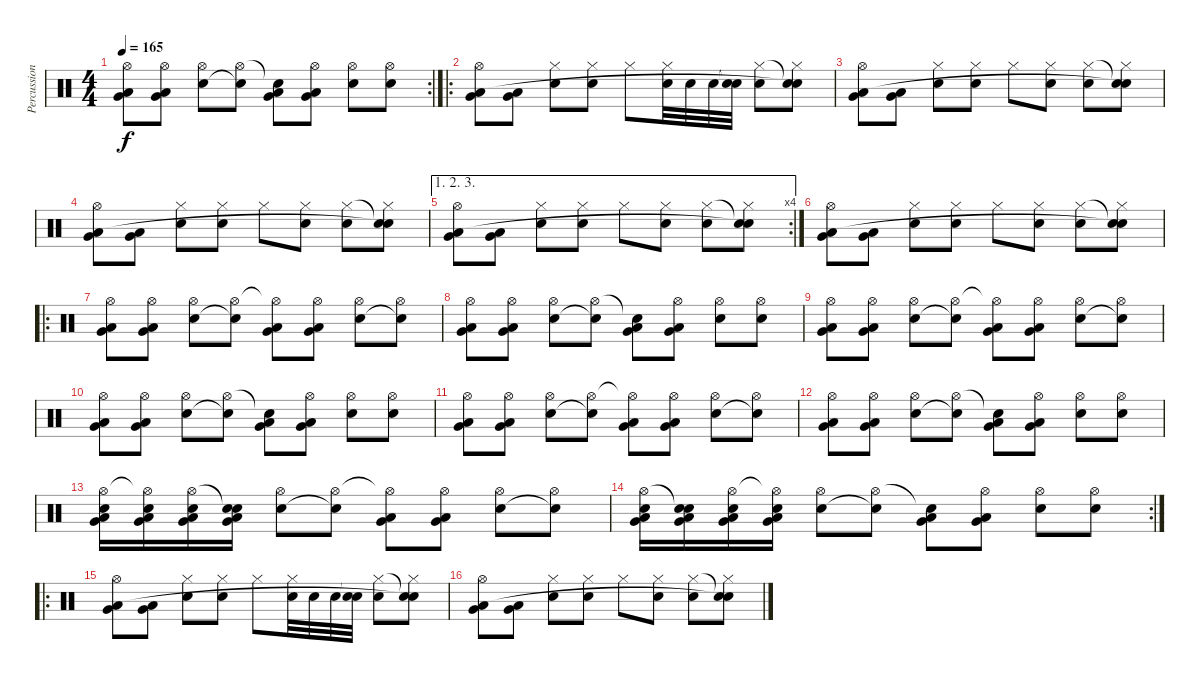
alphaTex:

\track ("Percussion" "Percussion") {instrument percussion}
\staff {score}
\articulation defaults
\rc 2
\ts (4 4)
\tempo 165
\clef neutral
\ks c
("Hi-Hat (open)" "Very Low Tom (hit)" "Low Tom (hit)").8{dy f} ("Hi-Hat (open)" "Very Low Tom (hit)" "Low Tom (hit)").8 ("Hi-Hat (open)" "Electric Snare (hit)").8 ("Hi-Hat (open)" "Snare (hit)"{t}).8 ("Snare (hit)"{t} "Very Low Tom (hit)" "Low Tom (hit)").8 ("Hi-Hat (open)" "Very Low Tom (hit)" "Low Tom (hit)").8 ("Hi-Hat (open)" "Electric Snare (hit)").8 ("Hi-Hat (open)" "Snare (hit) 2").8 |
\ro
("Hi-Hat (open)" "Very Low Tom (hit)" "Low Tom (hit)").8 ("Very Low Tom (hit)" "Low Tom (hit)").8 ("Hi-Hat (closed)" "Electric Snare (hit)").8 ("Hi-Hat (closed)" "Snare (hit) 2").8 "Hi-Hat (closed)".8 ("Hi-Hat (closed)" "Electric Snare (hit)").32 "Electric Snare (hit)".32 "Electric Snare (hit)".32 ("Snare (hit)"{t} "Electric Snare (hit)").32 ("Hi-Hat (closed)" "Snare (hit) 2").8 ("Snare (hit)"{t} "Hi-Hat (closed)" "Snare (hit)"{t}).8 |
("Hi-Hat (open)" "Very Low Tom (hit)" "Low Tom (hit)").8 ("Very Low Tom (hit)" "Low Tom (hit)").8 ("Hi-Hat (closed)" "Electric Snare (hit)").8 ("Hi-Hat (closed)" "Snare (hit) 2").8 "Hi-Hat (closed)".8 ("Hi-Hat (closed)" "Electric Snare (hit)").8 ("Hi-Hat (closed)" "Snare (hit) 2").8 ("Snare (hit)"{t} "Hi-Hat (closed)" "Snare (hit)"{t}).8 |
("Hi-Hat (open)" "Very Low Tom (hit)" "Low Tom (hit)").8 ("Very Low Tom (hit)" "Low Tom (hit)").8 ("Hi-Hat (closed)" "Electric Snare (hit)").8 ("Hi-Hat (closed)" "Snare (hit) 2").8 "Hi-Hat (closed)".8 ("Hi-Hat (closed)" "Electric Snare (hit)").8 ("Hi-Hat (closed)" "Snare (hit) 2").8 ("Snare (hit)"{t} "Hi-Hat (closed)" "Snare (hit)"{t}).8 |
\ae (1 2 3)
\rc 4
("Hi-Hat (open)" "Very Low Tom (hit)" "Low Tom (hit)").8 ("Very Low Tom (hit)" "Low Tom (hit)").8 ("Hi-Hat (closed)" "Electric Snare (hit)").8 ("Hi-Hat (closed)" "Snare (hit) 2").8 "Hi-Hat (closed)".8 ("Hi-Hat (closed)" "Electric Snare (hit)").8 ("Hi-Hat (closed)" "Snare (hit) 2").8 ("Snare (hit)"{t} "Hi-Hat (closed)" "Snare (hit)"{t}).8 |
("Hi-Hat (open)" "Very Low Tom (hit)" "Low Tom (hit)").8 ("Very Low Tom (hit)" "Low Tom (hit)").8 ("Hi-Hat (closed)" "Electric Snare (hit)").8 ("Hi-Hat (closed)" "Snare (hit) 2").8 "Hi-Hat (closed)".8 ("Hi-Hat (closed)" "Electric Snare (hit)").8 ("Hi-Hat (closed)" "Snare (hit) 2").8 ("Snare (hit)"{t} "Hi-Hat (closed)" "Snare (hit)"{t}).8 |
\ro
("Hi-Hat (open)" "Very Low Tom (hit)" "Low Tom (hit)").8 ("Hi-Hat (open)" "Very Low Tom (hit)" "Low Tom (hit)").8 ("Hi-Hat (open)" "Electric Snare (hit)").8 ("Hi-Hat (open)" "Snare (hit)"{t}).8 ("Hi-Hat (open)"{t} "Very Low Tom (hit)" "Low Tom (hit)").8 ("Hi-Hat (open)" "Very Low Tom (hit)" "Low Tom (hit)").8 ("Hi-Hat (open)" "Electric Snare (hit)").8 ("Hi-Hat (open)" "Snare (hit)"{t}).8 |
("Hi-Hat (open)" "Very Low Tom (hit)" "Low Tom (hit)").8 ("Hi-Hat (open)" "Very Low Tom (hit)" "Low Tom (hit)").8 ("Hi-Hat (open)" "Electric Snare (hit)").8 ("Hi-Hat (open)" "Snare (hit)"{t}).8 ("Snare (hit)"{t} "Very Low Tom (hit)" "Low Tom (hit)").8 ("Hi-Hat (open)" "Very Low Tom (hit)" "Low Tom (hit)").8 ("Hi-Hat (open)" "Electric Snare (hit)").8 ("Hi-Hat (open)" "Snare (hit) 2").8 |
("Hi-Hat (open)" "Very Low Tom (hit)" "Low Tom (hit)").8 ("Hi-Hat (open)" "Very Low Tom (hit)" "Low Tom (hit)").8 ("Hi-Hat (open)" "Electric Snare (hit)").8 ("Hi-Hat (open)" "Snare (hit)"{t}).8 ("Hi-Hat (open)"{t} "Very Low Tom (hit)" "Low Tom (hit)").8 ("Hi-Hat (open)" "Very Low Tom (hit)" "Low Tom (hit)").8 ("Hi-Hat (open)" "Electric Snare (hit)").8 ("Hi-Hat (open)" "Snare (hit)"{t}).8 |
("Hi-Hat (open)" "Very Low Tom (hit)" "Low Tom (hit)").8 ("Hi-Hat (open)" "Very Low Tom (hit)" "Low Tom (hit)").8 ("Hi-Hat (open)" "Electric Snare (hit)").8 ("Hi-Hat (open)" "Snare (hit)"{t}).8 ("Snare (hit)"{t} "Very Low Tom (hit)" "Low Tom (hit)").8 ("Hi-Hat (open)" "Very Low Tom (hit)" "Low Tom (hit)").8 ("Hi-Hat (open)" "Electric Snare (hit)").8 ("Hi-Hat (open)" "Snare (hit) 2").8 |
("Hi-Hat (open)" "Very Low Tom (hit)" "Low Tom (hit)").8 ("Hi-Hat (open)" "Very Low Tom (hit)" "Low Tom (hit)").8 ("Hi-Hat (open)" "Electric Snare (hit)").8 ("Hi-Hat (open)" "Snare (hit)"{t}).8 ("Hi-Hat (open)"{t} "Very Low Tom (hit)" "Low Tom (hit)").8 ("Hi-Hat (open)" "Very Low Tom (hit)" "Low Tom (hit)").8 ("Hi-Hat (open)" "Electric Snare (hit)").8 ("Hi-Hat (open)" "Snare (hit)"{t}).8 |
("Hi-Hat (open)" "Very Low Tom (hit)" "Low Tom (hit)").8 ("Hi-Hat (open)" "Very Low Tom (hit)" "Low Tom (hit)").8 ("Hi-Hat (open)" "Electric Snare (hit)").8 ("Hi-Hat (open)" "Snare (hit)"{t}).8 ("Snare (hit)"{t} "Very Low Tom (hit)" "Low Tom (hit)").8 ("Hi-Hat (open)" "Very Low Tom (hit)" "Low Tom (hit)").8 ("Hi-Hat (open)" "Electric Snare (hit)").8 ("Hi-Hat (open)" "Snare (hit) 2").8 |
("Hi-Hat (open)" "Very Low Tom (hit)" "Low Tom (hit)" "Snare (hit) 2").16 ("Hi-Hat (open)"{t} "Very Low Tom (hit)" "Low Tom (hit)" "Snare (hit) 2").16 ("Hi-Hat (open)" "Very Low Tom (hit)" "Low Tom (hit)" "Snare (hit) 2").16 ("Snare (hit)"{t} "Very Low Tom (hit)" "Low Tom (hit)" "Snare (hit) 2").16 ("Hi-Hat (open)" "Electric Snare (hit)").8 ("Hi-Hat (open)" "Snare (hit)"{t}).8 ("Hi-Hat (open)"{t} "Very Low Tom (hit)" "Low Tom (hit)").8 ("Hi-Hat (open)" "Very Low Tom (hit)" "Low Tom (hit)").8 ("Hi-Hat (open)" "Electric Snare (hit)").8 ("Hi-Hat (open)" "Snare (hit)"{t}).8 |
\rc 2
("Hi-Hat (open)" "Very Low Tom (hit)" "Low Tom (hit)" "Snare (hit) 2").16 ("Snare (hit)"{t} "Very Low Tom (hit)" "Low Tom (hit)" "Snare (hit) 2").16 ("Hi-Hat (open)" "Very Low Tom (hit)" "Low Tom (hit)" "Snare (hit) 2").16 ("Hi-Hat (open)"{t} "Very Low Tom (hit)" "Low Tom (hit)" "Snare (hit) 2").16 ("Hi-Hat (open)" "Electric Snare (hit)").8 ("Hi-Hat (open)" "Snare (hit)"{t}).8 ("Snare (hit)"{t} "Very Low Tom (hit)" "Low Tom (hit)").8 ("Hi-Hat (open)" "Very Low Tom (hit)" "Low Tom (hit)").8 ("Hi-Hat (open)" "Electric Snare (hit)").8 ("Hi-Hat (open)" "Snare (hit) 2").8 |
\ro
("Hi-Hat (open)" "Very Low Tom (hit)" "Low Tom (hit)").8 ("Very Low Tom (hit)" "Low Tom (hit)").8 ("Hi-Hat (closed)" "Electric Snare (hit)").8 ("Hi-Hat (closed)" "Snare (hit) 2").8 "Hi-Hat (closed)".8 ("Hi-Hat (closed)" "Electric Snare (hit)").32 "Electric Snare (hit)".32 "Electric Snare (hit)".32 ("Snare (hit)"{t} "Electric Snare (hit)").32 ("Hi-Hat (closed)" "Snare (hit) 2").8 ("Snare (hit)"{t} "Hi-Hat (closed)" "Snare (hit)"{t}).8 |
("Hi-Hat (open)" "Very Low Tom (hit)" "Low Tom (hit)").8 ("Very Low Tom (hit)" "Low Tom (hit)").8 ("Hi-Hat (closed)" "Electric Snare (hit)").8 ("Hi-Hat (closed)" "Snare (hit) 2").8 "Hi-Hat (closed)".8 ("Hi-Hat (closed)" "Electric Snare (hit)").8 ("Hi-Hat (closed)" "Snare (hit) 2").8 ("Snare (hit)"{t} "Hi-Hat (closed)" "Snare (hit)"{t}).8
